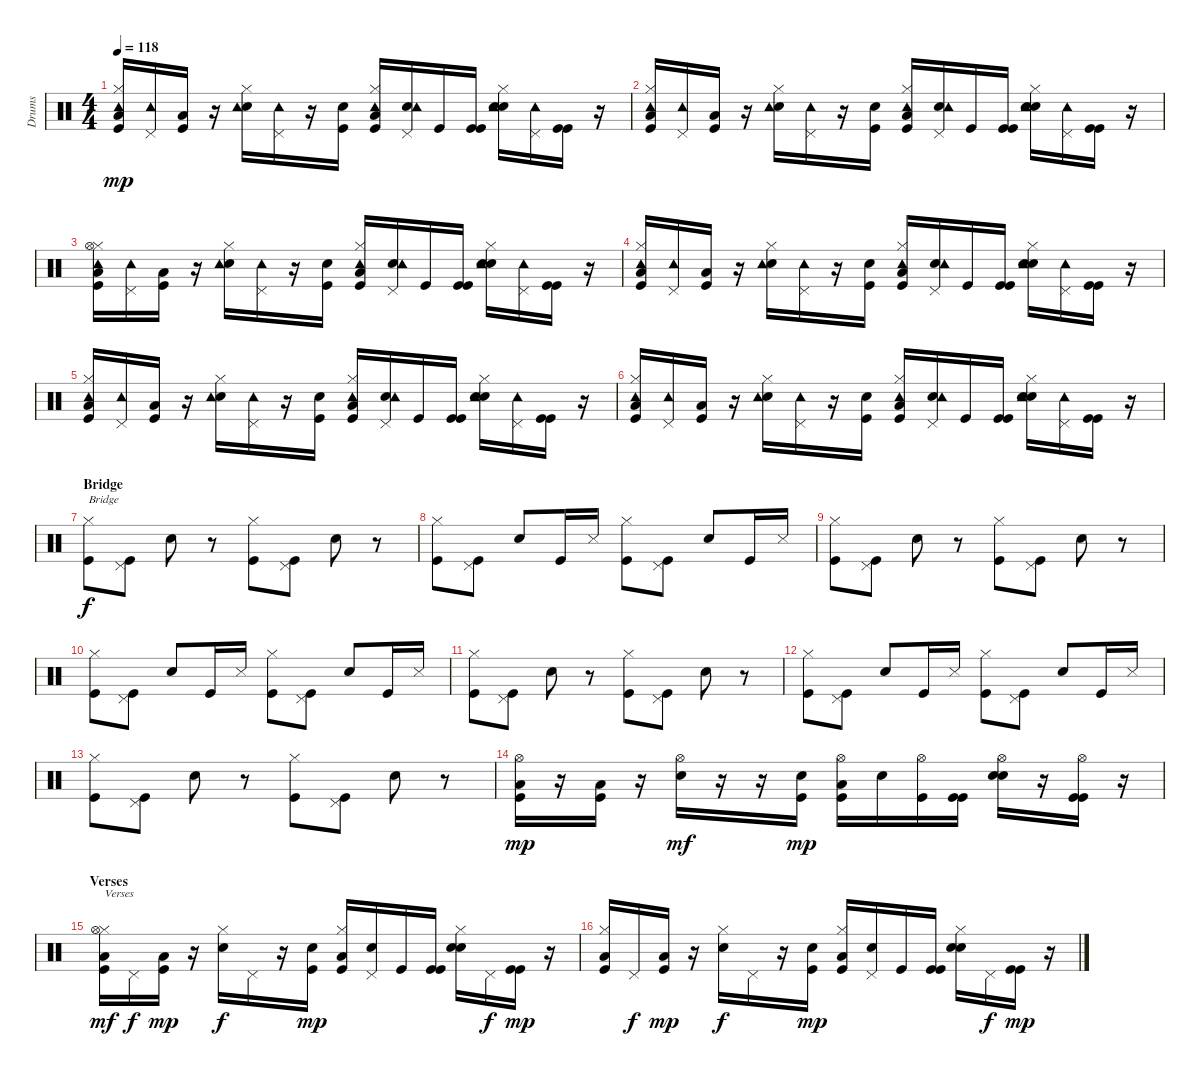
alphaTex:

\track ("Drums" "Drums") {instrument percussion}
\staff {score}
\articulation defaults
\ts (4 4)
\tempo 118
\clef neutral
\ks c
("Low Floor Tom (hit)" "Hi-Hat (closed)" "Kick (hit)" "Tambourine (hit)").16{dy mp} ("Pedal Hi-Hat (hit)" "Tambourine (hit)").16 ("Low Floor Tom (hit)" "Kick (hit)").16 r.16 ("Electric Snare (hit)" "Hi-Hat (closed)" "Tambourine (hit)").16 ("Pedal Hi-Hat (hit)" "Tambourine (hit)").16 r.16 ("Kick (hit)" "Electric Snare (hit)").16 ("Low Floor Tom (hit)" "Hi-Hat (closed)" "Kick (hit)" "Tambourine (hit)").16 ("Pedal Hi-Hat (hit)" "Electric Snare (hit)" "Tambourine (hit)").16 "Kick (hit)".16 ("Kick (hit)" "Kick (hit)").16 ("Electric Snare (hit)" "Hi-Hat (closed)" "Electric Snare (hit)" "Tambourine (hit)").16 ("Pedal Hi-Hat (hit)" "Tambourine (hit)").16 ("Kick (hit)" "Kick (hit)").16 r.16 |
("Low Floor Tom (hit)" "Hi-Hat (closed)" "Kick (hit)" "Tambourine (hit)").16 ("Pedal Hi-Hat (hit)" "Tambourine (hit)").16 ("Low Floor Tom (hit)" "Kick (hit)").16 r.16 ("Electric Snare (hit)" "Hi-Hat (closed)" "Tambourine (hit)").16 ("Pedal Hi-Hat (hit)" "Tambourine (hit)").16 r.16 ("Kick (hit)" "Electric Snare (hit)").16 ("Low Floor Tom (hit)" "Hi-Hat (closed)" "Kick (hit)" "Tambourine (hit)").16 ("Pedal Hi-Hat (hit)" "Electric Snare (hit)" "Tambourine (hit)").16 "Kick (hit)".16 ("Kick (hit)" "Kick (hit)").16 ("Electric Snare (hit)" "Hi-Hat (closed)" "Electric Snare (hit)" "Tambourine (hit)").16 ("Pedal Hi-Hat (hit)" "Tambourine (hit)").16 ("Kick (hit)" "Kick (hit)").16 r.16 |
("Low Floor Tom (hit)" "Hi-Hat (closed)" "Kick (hit)" "Tambourine (hit)" "Hi-Hat (open)").16 ("Pedal Hi-Hat (hit)" "Tambourine (hit)").16 ("Low Floor Tom (hit)" "Kick (hit)").16 r.16 ("Electric Snare (hit)" "Hi-Hat (closed)" "Tambourine (hit)").16 ("Pedal Hi-Hat (hit)" "Tambourine (hit)").16 r.16 ("Kick (hit)" "Electric Snare (hit)").16 ("Low Floor Tom (hit)" "Hi-Hat (closed)" "Kick (hit)" "Tambourine (hit)").16 ("Pedal Hi-Hat (hit)" "Electric Snare (hit)" "Tambourine (hit)").16 "Kick (hit)".16 ("Kick (hit)" "Kick (hit)").16 ("Electric Snare (hit)" "Hi-Hat (closed)" "Electric Snare (hit)" "Tambourine (hit)").16 ("Pedal Hi-Hat (hit)" "Tambourine (hit)").16 ("Kick (hit)" "Kick (hit)").16 r.16 |
("Low Floor Tom (hit)" "Hi-Hat (closed)" "Kick (hit)" "Tambourine (hit)").16 ("Pedal Hi-Hat (hit)" "Tambourine (hit)").16 ("Low Floor Tom (hit)" "Kick (hit)").16 r.16 ("Electric Snare (hit)" "Hi-Hat (closed)" "Tambourine (hit)").16 ("Pedal Hi-Hat (hit)" "Tambourine (hit)").16 r.16 ("Kick (hit)" "Electric Snare (hit)").16 ("Low Floor Tom (hit)" "Hi-Hat (closed)" "Kick (hit)" "Tambourine (hit)").16 ("Pedal Hi-Hat (hit)" "Electric Snare (hit)" "Tambourine (hit)").16 "Kick (hit)".16 ("Kick (hit)" "Kick (hit)").16 ("Electric Snare (hit)" "Hi-Hat (closed)" "Electric Snare (hit)" "Tambourine (hit)").16 ("Pedal Hi-Hat (hit)" "Tambourine (hit)").16 ("Kick (hit)" "Kick (hit)").16 r.16 |
("Low Floor Tom (hit)" "Hi-Hat (closed)" "Kick (hit)" "Tambourine (hit)").16 ("Pedal Hi-Hat (hit)" "Tambourine (hit)").16 ("Low Floor Tom (hit)" "Kick (hit)").16 r.16 ("Electric Snare (hit)" "Hi-Hat (closed)" "Tambourine (hit)").16 ("Pedal Hi-Hat (hit)" "Tambourine (hit)").16 r.16 ("Kick (hit)" "Electric Snare (hit)").16 ("Low Floor Tom (hit)" "Hi-Hat (closed)" "Kick (hit)" "Tambourine (hit)").16 ("Pedal Hi-Hat (hit)" "Electric Snare (hit)" "Tambourine (hit)").16 "Kick (hit)".16 ("Kick (hit)" "Kick (hit)").16 ("Electric Snare (hit)" "Hi-Hat (closed)" "Electric Snare (hit)" "Tambourine (hit)").16 ("Pedal Hi-Hat (hit)" "Tambourine (hit)").16 ("Kick (hit)" "Kick (hit)").16 r.16 |
("Low Floor Tom (hit)" "Hi-Hat (closed)" "Kick (hit)" "Tambourine (hit)").16 ("Pedal Hi-Hat (hit)" "Tambourine (hit)").16 ("Low Floor Tom (hit)" "Kick (hit)").16 r.16 ("Electric Snare (hit)" "Hi-Hat (closed)" "Tambourine (hit)").16 ("Pedal Hi-Hat (hit)" "Tambourine (hit)").16 r.16 ("Kick (hit)" "Electric Snare (hit)").16 ("Low Floor Tom (hit)" "Hi-Hat (closed)" "Kick (hit)" "Tambourine (hit)").16 ("Pedal Hi-Hat (hit)" "Electric Snare (hit)" "Tambourine (hit)").16 "Kick (hit)".16 ("Kick (hit)" "Kick (hit)").16 ("Electric Snare (hit)" "Hi-Hat (closed)" "Electric Snare (hit)" "Tambourine (hit)").16 ("Pedal Hi-Hat (hit)" "Tambourine (hit)").16 ("Kick (hit)" "Kick (hit)").16 r.16 |
\section ("" "Bridge")
("Kick (hit)" "Hi-Hat (closed)").8{txt "Bridge" dy f} ("Kick (hit)" "Pedal Hi-Hat (hit)").8 "Electric Snare (hit)".8 r.8 ("Kick (hit)" "Hi-Hat (closed)").8 ("Kick (hit)" "Pedal Hi-Hat (hit)").8 "Electric Snare (hit)".8 r.8 |
("Kick (hit)" "Hi-Hat (closed)").8 ("Kick (hit)" "Pedal Hi-Hat (hit)").8 "Electric Snare (hit)".8 "Kick (hit)".16 "Snare (side stick) 3".16 ("Kick (hit)" "Hi-Hat (closed)").8 ("Kick (hit)" "Pedal Hi-Hat (hit)").8 "Electric Snare (hit)".8 "Kick (hit)".16 "Snare (side stick) 3".16 |
("Kick (hit)" "Hi-Hat (closed)").8 ("Kick (hit)" "Pedal Hi-Hat (hit)").8 "Electric Snare (hit)".8 r.8 ("Kick (hit)" "Hi-Hat (closed)").8 ("Kick (hit)" "Pedal Hi-Hat (hit)").8 "Electric Snare (hit)".8 r.8 |
("Kick (hit)" "Hi-Hat (closed)").8 ("Kick (hit)" "Pedal Hi-Hat (hit)").8 "Electric Snare (hit)".8 "Kick (hit)".16 "Snare (side stick) 3".16 ("Kick (hit)" "Hi-Hat (closed)").8 ("Kick (hit)" "Pedal Hi-Hat (hit)").8 "Electric Snare (hit)".8 "Kick (hit)".16 "Snare (side stick) 3".16 |
("Kick (hit)" "Hi-Hat (closed)").8 ("Kick (hit)" "Pedal Hi-Hat (hit)").8 "Electric Snare (hit)".8 r.8 ("Kick (hit)" "Hi-Hat (closed)").8 ("Kick (hit)" "Pedal Hi-Hat (hit)").8 "Electric Snare (hit)".8 r.8 |
("Kick (hit)" "Hi-Hat (closed)").8 ("Kick (hit)" "Pedal Hi-Hat (hit)").8 "Electric Snare (hit)".8 "Kick (hit)".16 "Snare (side stick) 3".16 ("Kick (hit)" "Hi-Hat (closed)").8 ("Kick (hit)" "Pedal Hi-Hat (hit)").8 "Electric Snare (hit)".8 "Kick (hit)".16 "Snare (side stick) 3".16 |
("Kick (hit)" "Hi-Hat (closed)").8 ("Kick (hit)" "Pedal Hi-Hat (hit)").8 "Electric Snare (hit)".8 r.8 ("Kick (hit)" "Hi-Hat (closed)").8 ("Kick (hit)" "Pedal Hi-Hat (hit)").8 "Electric Snare (hit)".8 r.8 |
("Low Floor Tom (hit)" "Hi-Hat (open)" "Kick (hit)").16{dy mp} r.16 ("Low Floor Tom (hit)" "Kick (hit)").16 r.16 ("Electric Snare (hit)" "Hi-Hat (open)").16{dy mf} r.16 r.16 ("Kick (hit)" "Electric Snare (hit)").16{dy mp} ("Low Floor Tom (hit)" "Hi-Hat (open)" "Kick (hit)").16 "Electric Snare (hit)".16 ("Hi-Hat (open)" "Kick (hit)").16 ("Kick (hit)" "Kick (hit)").16 ("Electric Snare (hit)" "Hi-Hat (open)" "Electric Snare (hit)").16 r.16 ("Kick (hit)" "Hi-Hat (open)" "Kick (hit)").16 r.16 |
\section ("" "Verses")
("Low Floor Tom (hit)" "Hi-Hat (closed)" "Kick (hit)" "Hi-Hat (open)").16{txt "Verses" dy mf} "Pedal Hi-Hat (hit)".16{dy f} ("Low Floor Tom (hit)" "Kick (hit)").16{dy mp} r.16 ("Electric Snare (hit)" "Hi-Hat (closed)").16{dy f} "Pedal Hi-Hat (hit)".16 r.16 ("Kick (hit)" "Electric Snare (hit)").16{dy mp} ("Low Floor Tom (hit)" "Hi-Hat (closed)" "Kick (hit)").16 ("Pedal Hi-Hat (hit)" "Electric Snare (hit)").16 "Kick (hit)".16 ("Kick (hit)" "Kick (hit)").16 ("Electric Snare (hit)" "Hi-Hat (closed)" "Electric Snare (hit)").16 "Pedal Hi-Hat (hit)".16{dy f} ("Kick (hit)" "Kick (hit)").16{dy mp} r.16 |
("Low Floor Tom (hit)" "Hi-Hat (closed)" "Kick (hit)").16 "Pedal Hi-Hat (hit)".16{dy f} ("Low Floor Tom (hit)" "Kick (hit)").16{dy mp} r.16 ("Electric Snare (hit)" "Hi-Hat (closed)").16{dy f} "Pedal Hi-Hat (hit)".16 r.16 ("Kick (hit)" "Electric Snare (hit)").16{dy mp} ("Low Floor Tom (hit)" "Hi-Hat (closed)" "Kick (hit)").16 ("Pedal Hi-Hat (hit)" "Electric Snare (hit)").16 "Kick (hit)".16 ("Kick (hit)" "Kick (hit)").16 ("Electric Snare (hit)" "Hi-Hat (closed)" "Electric Snare (hit)").16 "Pedal Hi-Hat (hit)".16{dy f} ("Kick (hit)" "Kick (hit)").16{dy mp} r.16
